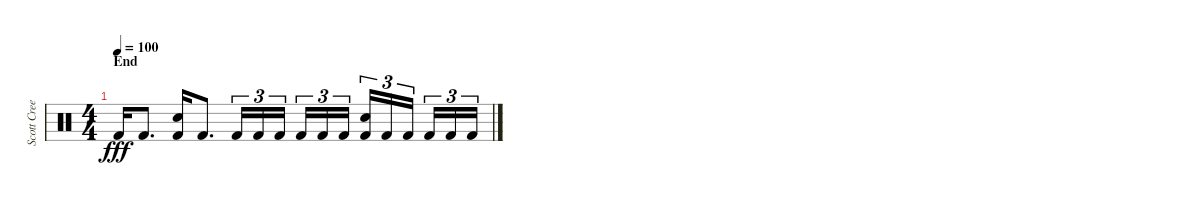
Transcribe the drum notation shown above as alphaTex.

\track ("Scott Creekmore" "Scott Cree") {instrument percussion}
\staff {score}
\articulation defaults
\ts (4 4)
\section ("" "End")
\tempo 100
\clef neutral
\ks c "Kick (hit) 2".16{dy fff} "Kick (hit) 2".8{d}
("Electric Snare (hit)" "Kick (hit) 2").16 "Kick (hit) 2".8{d} "Kick (hit) 2".16{tu (3 2)} "Kick (hit) 2".16{tu (3 2)} "Kick (hit) 2".16{tu (3 2) beam splitsecondary} "Kick (hit) 2".16{tu (3 2)} "Kick (hit) 2".16{tu (3 2)} "Kick (hit) 2".16{tu (3 2)} ("Electric Snare (hit)" "Kick (hit) 2").16{tu (3 2)} "Kick (hit) 2".16{tu (3 2)} "Kick (hit) 2".16{tu (3 2) beam splitsecondary} "Kick (hit) 2".16{tu (3 2)} "Kick (hit) 2".16{tu (3 2)} "Kick (hit) 2".16{tu (3 2)}
